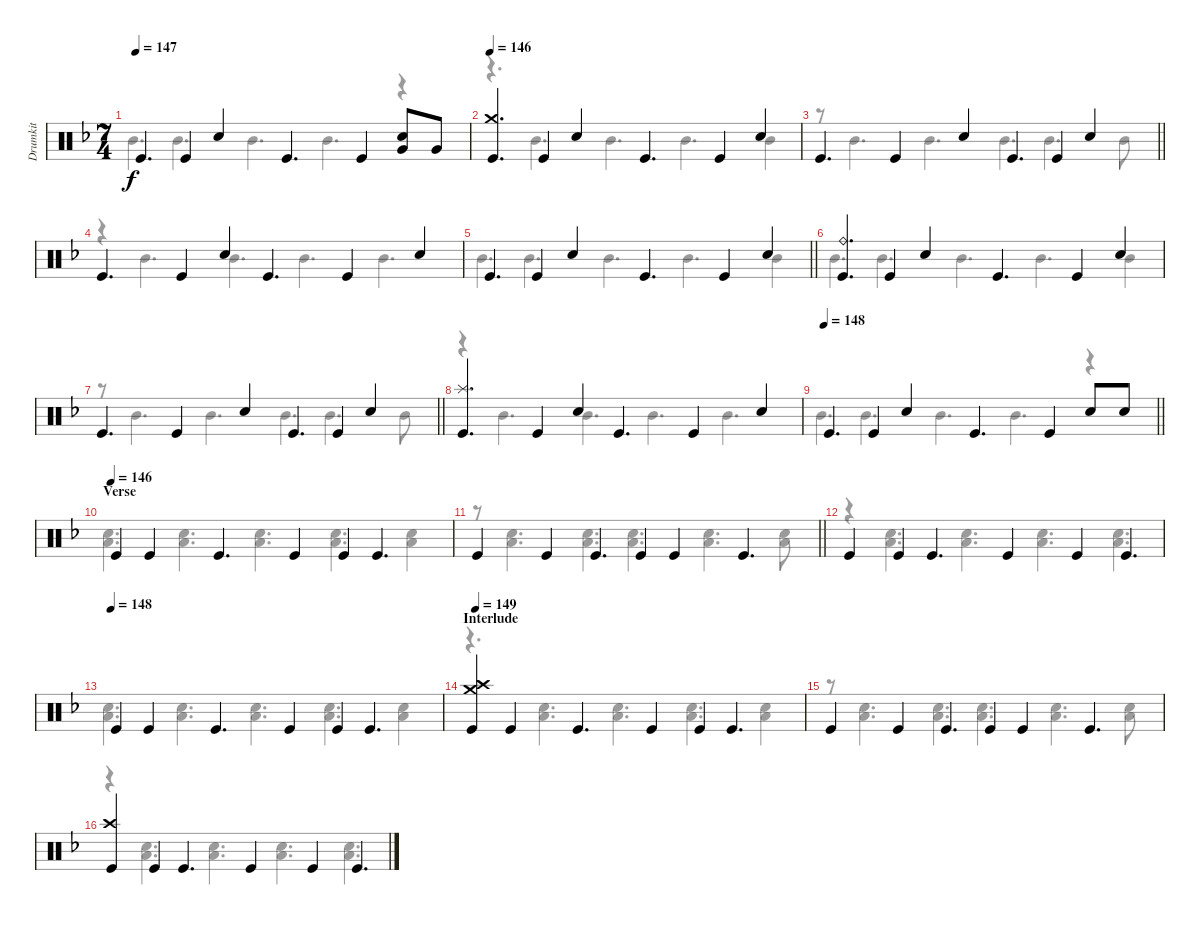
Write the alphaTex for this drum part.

\track ("Drumkit" "Drumkit") {instrument percussion}
\staff {score}
\articulation defaults
\voice
\ts (7 4)
\tempo 147
\clef neutral
\ks dminor "Kick (hit)".4{d dy f} "Kick (hit)".4 "Snare (hit) 2".4 "Kick (hit)".4{d} "Kick (hit)".4
("Snare (hit) 2" "Very Low Tom (hit)").8 "Very Low Tom (hit)".8 |
\section ("" "")
\tempo 146
("Kick (hit)" "Crash medium (hit)").4{d} "Kick (hit)".4 "Snare (hit) 2".4 "Kick (hit)".4{d} "Kick (hit)".4 "Snare (hit) 2".4 |
\barLineRight lightlight "Kick (hit)".4{d} "Kick (hit)".4 "Snare (hit) 2".4 "Kick (hit)".4{d} "Kick (hit)".4 "Snare (hit) 2".4
|
"Kick (hit)".4{d} "Kick (hit)".4 "Snare (hit) 2".4 "Kick (hit)".4{d} "Kick (hit)".4 "Snare (hit) 2".4 |
\barLineRight lightlight "Kick (hit)".4{d} "Kick (hit)".4 "Snare (hit) 2".4 "Kick (hit)".4{d} "Kick (hit)".4 "Snare (hit) 2".4
|
("Kick (hit)" "Ride (bell)").4{d} "Kick (hit)".4 "Snare (hit) 2".4 "Kick (hit)".4{d} "Kick (hit)".4 "Snare (hit) 2".4 |
\barLineRight lightlight "Kick (hit)".4{d} "Kick (hit)".4 "Snare (hit) 2".4 "Kick (hit)".4{d} "Kick (hit)".4 "Snare (hit) 2".4
|
("Kick (hit)" "Splash (hit)").4{d} "Kick (hit)".4 "Snare (hit) 2".4 "Kick (hit)".4{d} "Kick (hit)".4 "Snare (hit) 2".4 |
\tempo 148
\barLineRight lightlight "Kick (hit)".4{d} "Kick (hit)".4 "Snare (hit) 2".4 "Kick (hit)".4{d} "Kick (hit)".4 "Snare (hit) 2".8 "Snare (hit) 2".8
|
\section ("" "Verse")
\tempo (146)
"Kick (hit)".4 "Kick (hit)".4 "Kick (hit)".4{d} "Kick (hit)".4 "Kick (hit)".4 "Kick (hit)".4{d} |
\barLineRight lightlight "Kick (hit)".4 "Kick (hit)".4 "Kick (hit)".4{d} "Kick (hit)".4 "Kick (hit)".4 "Kick (hit)".4{d}
|
"Kick (hit)".4 "Kick (hit)".4 "Kick (hit)".4{d} "Kick (hit)".4 "Kick (hit)".4 "Kick (hit)".4{d} |
\tempo (148)
"Kick (hit)".4 "Kick (hit)".4 "Kick (hit)".4{d} "Kick (hit)".4 "Kick (hit)".4 "Kick (hit)".4{d} |
\section ("" "Interlude")
\tempo 149
("Kick (hit)" "Crash medium (hit)" "Crash high (hit)").4 "Kick (hit)".4 "Kick (hit)".4{d} "Kick (hit)".4 "Kick (hit)".4 "Kick (hit)".4{d} |
"Kick (hit)".4 "Kick (hit)".4 "Kick (hit)".4{d} "Kick (hit)".4 "Kick (hit)".4 "Kick (hit)".4{d} |
("Kick (hit)" "Crash high (hit)").4 "Kick (hit)".4 "Kick (hit)".4{d} "Kick (hit)".4 "Kick (hit)".4 "Kick (hit)".4{d}
\voice
\clef neutral
\ottava regular
\simile none
\ks dminor "Mid Tom (hit)".4{d dy f} "Mid Tom (hit)".4{d} "Mid Tom (hit)".4{d} "Mid Tom (hit)".4{d}
r.4 |
r.4{d} "Mid Tom (hit)".4{d} "Mid Tom (hit)".4{d} "Mid Tom (hit)".4{d} "Mid Tom (hit)".4 |
\barLineRight lightlight
r.8 "Mid Tom (hit)".4{d} "Mid Tom (hit)".4{d} "Mid Tom (hit)".4{d} "Mid Tom (hit)".4{d} "Mid Tom (hit)".8 |
r.4 "Mid Tom (hit)".4{d} "Mid Tom (hit)".4{d} "Mid Tom (hit)".4{d} "Mid Tom (hit)".4{d} |
\barLineRight lightlight "Mid Tom (hit)".4{d} "Mid Tom (hit)".4{d} "Mid Tom (hit)".4{d} "Mid Tom (hit)".4{d} "Mid Tom (hit)".4
|
"Mid Tom (hit)".4{d} "Mid Tom (hit)".4{d} "Mid Tom (hit)".4{d} "Mid Tom (hit)".4{d} "Mid Tom (hit)".4 |
\barLineRight lightlight
r.8 "Mid Tom (hit)".4{d} "Mid Tom (hit)".4{d} "Mid Tom (hit)".4{d} "Mid Tom (hit)".4{d} "Mid Tom (hit)".8 |
r.4 "Mid Tom (hit)".4{d} "Mid Tom (hit)".4{d} "Mid Tom (hit)".4{d} "Mid Tom (hit)".4{d} |
\barLineRight lightlight "Mid Tom (hit)".4{d} "Mid Tom (hit)".4{d} "Mid Tom (hit)".4{d} "Mid Tom (hit)".4{d}
r.4 |
("Snare (hit) 2" "Low Floor Tom (hit)").4{d} ("Snare (hit) 2" "Low Floor Tom (hit)").4{d} ("Snare (hit) 2" "Low Floor Tom (hit)").4{d} ("Snare (hit) 2" "Low Floor Tom (hit)").4{d} ("Snare (hit) 2" "Low Floor Tom (hit)").4 |
\barLineRight lightlight
r.8 ("Snare (hit) 2" "Low Floor Tom (hit)").4{d} ("Snare (hit) 2" "Low Floor Tom (hit)").4{d} ("Snare (hit) 2" "Low Floor Tom (hit)").4{d} ("Snare (hit) 2" "Low Floor Tom (hit)").4{d} ("Snare (hit) 2" "Low Floor Tom (hit)").8 |
r.4 ("Snare (hit) 2" "Low Floor Tom (hit)").4{d} ("Snare (hit) 2" "Low Floor Tom (hit)").4{d} ("Snare (hit) 2" "Low Floor Tom (hit)").4{d} ("Snare (hit) 2" "Low Floor Tom (hit)").4{d} |
("Snare (hit) 2" "Low Floor Tom (hit)").4{d} ("Snare (hit) 2" "Low Floor Tom (hit)").4{d} ("Snare (hit) 2" "Low Floor Tom (hit)").4{d} ("Snare (hit) 2" "Low Floor Tom (hit)").4{d} ("Snare (hit) 2" "Low Floor Tom (hit)").4 |
r.4{d} ("Snare (hit) 2" "Low Floor Tom (hit)").4{d} ("Snare (hit) 2" "Low Floor Tom (hit)").4{d} ("Snare (hit) 2" "Low Floor Tom (hit)").4{d} ("Snare (hit) 2" "Low Floor Tom (hit)").4 |
r.8 ("Snare (hit) 2" "Low Floor Tom (hit)").4{d} ("Snare (hit) 2" "Low Floor Tom (hit)").4{d} ("Snare (hit) 2" "Low Floor Tom (hit)").4{d} ("Snare (hit) 2" "Low Floor Tom (hit)").4{d} ("Snare (hit) 2" "Low Floor Tom (hit)").8 |
r.4 ("Snare (hit) 2" "Low Floor Tom (hit)").4{d} ("Snare (hit) 2" "Low Floor Tom (hit)").4{d} ("Snare (hit) 2" "Low Floor Tom (hit)").4{d} ("Snare (hit) 2" "Low Floor Tom (hit)").4{d}
